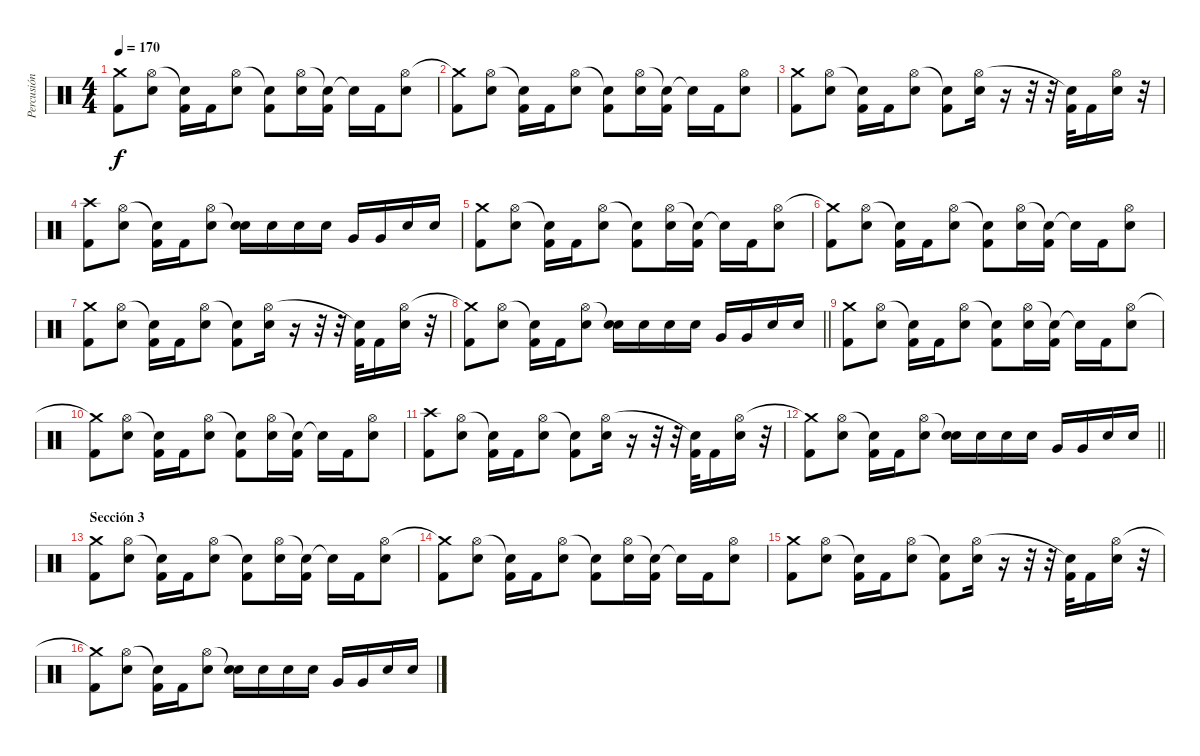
\track ("Percusión" "Percusión") {instrument percussion}
\staff {score}
\articulation defaults
\ts (4 4)
\tempo 170
\clef neutral
\ks c
("Crash medium (hit)" "Kick (hit) 2").8{dy f} ("Hi-Hat (open)" "Electric Snare (hit)").8 ("Snare (hit)"{t} "Kick (hit) 2").16 "Kick (hit) 2".16 ("Hi-Hat (open)" "Electric Snare (hit)").8 ("Snare (hit)"{t} "Kick (hit) 2").8 ("Hi-Hat (open)" "Electric Snare (hit)").16 ("Snare (hit)"{t} "Kick (hit) 2").16 "Snare (hit)"{t}.16 "Kick (hit) 2".16 ("Hi-Hat (open)" "Electric Snare (hit)").8 |
("Crash medium (hit)"{t} "Kick (hit) 2").8 ("Hi-Hat (open)" "Electric Snare (hit)").8 ("Snare (hit)"{t} "Kick (hit) 2").16 "Kick (hit) 2".16 ("Hi-Hat (open)" "Electric Snare (hit)").8 ("Snare (hit)"{t} "Kick (hit) 2").8 ("Hi-Hat (open)" "Electric Snare (hit)").16 ("Snare (hit)"{t} "Kick (hit) 2").16 "Snare (hit)"{t}.16 "Kick (hit) 2".16 ("Hi-Hat (open)" "Electric Snare (hit)").8 |
("Crash medium (hit)" "Kick (hit) 2").8 ("Hi-Hat (open)" "Electric Snare (hit)").8 ("Snare (hit)"{t} "Kick (hit) 2").16 "Kick (hit) 2".16 ("Hi-Hat (open)" "Electric Snare (hit)").8 ("Snare (hit)"{t} "Kick (hit) 2").8 ("Hi-Hat (open)" "Electric Snare (hit)").16 r.16 r.32 r.32 ("Snare (hit)"{t} "Kick (hit) 2").32 "Kick (hit) 2".16 ("Hi-Hat (open)" "Electric Snare (hit)").16 r.32 |
("Crash high (hit)" "Kick (hit) 2").8 ("Hi-Hat (open)" "Electric Snare (hit)").8 ("Snare (hit)"{t} "Kick (hit) 2").16 "Kick (hit) 2".16 ("Hi-Hat (open)" "Electric Snare (hit)").8 ("Snare (hit)"{t} "Electric Snare (hit)").16 "Electric Snare (hit)".16 "Electric Snare (hit)".16 "Electric Snare (hit)".16 "Very Low Tom (hit)".16 "Very Low Tom (hit)".16 "Electric Snare (hit)".16 "Electric Snare (hit)".16 |
("Crash medium (hit)" "Kick (hit) 2").8 ("Hi-Hat (open)" "Electric Snare (hit)").8 ("Snare (hit)"{t} "Kick (hit) 2").16 "Kick (hit) 2".16 ("Hi-Hat (open)" "Electric Snare (hit)").8 ("Snare (hit)"{t} "Kick (hit) 2").8 ("Hi-Hat (open)" "Electric Snare (hit)").16 ("Snare (hit)"{t} "Kick (hit) 2").16 "Snare (hit)"{t}.16 "Kick (hit) 2".16 ("Hi-Hat (open)" "Electric Snare (hit)").8 |
("Crash medium (hit)"{t} "Kick (hit) 2").8 ("Hi-Hat (open)" "Electric Snare (hit)").8 ("Snare (hit)"{t} "Kick (hit) 2").16 "Kick (hit) 2".16 ("Hi-Hat (open)" "Electric Snare (hit)").8 ("Snare (hit)"{t} "Kick (hit) 2").8 ("Hi-Hat (open)" "Electric Snare (hit)").16 ("Snare (hit)"{t} "Kick (hit) 2").16 "Snare (hit)"{t}.16 "Kick (hit) 2".16 ("Hi-Hat (open)" "Electric Snare (hit)").8 |
("Crash medium (hit)" "Kick (hit) 2").8 ("Hi-Hat (open)" "Electric Snare (hit)").8 ("Snare (hit)"{t} "Kick (hit) 2").16 "Kick (hit) 2".16 ("Hi-Hat (open)" "Electric Snare (hit)").8 ("Snare (hit)"{t} "Kick (hit) 2").8 ("Hi-Hat (open)" "Electric Snare (hit)").16 r.16 r.32 r.32 ("Snare (hit)"{t} "Kick (hit) 2").32 "Kick (hit) 2".16 ("Hi-Hat (open)" "Electric Snare (hit)").16 r.32 |
\barLineRight lightlight
("Crash medium (hit)"{t} "Kick (hit) 2").8 ("Hi-Hat (open)" "Electric Snare (hit)").8 ("Snare (hit)"{t} "Kick (hit) 2").16 "Kick (hit) 2".16 ("Hi-Hat (open)" "Electric Snare (hit)").8 ("Snare (hit)"{t} "Electric Snare (hit)").16 "Electric Snare (hit)".16 "Electric Snare (hit)".16 "Electric Snare (hit)".16 "Very Low Tom (hit)".16 "Very Low Tom (hit)".16 "Electric Snare (hit)".16 "Electric Snare (hit)".16 |
("Crash medium (hit)" "Kick (hit) 2").8 ("Hi-Hat (open)" "Electric Snare (hit)").8 ("Snare (hit)"{t} "Kick (hit) 2").16 "Kick (hit) 2".16 ("Hi-Hat (open)" "Electric Snare (hit)").8 ("Snare (hit)"{t} "Kick (hit) 2").8 ("Hi-Hat (open)" "Electric Snare (hit)").16 ("Snare (hit)"{t} "Kick (hit) 2").16 "Snare (hit)"{t}.16 "Kick (hit) 2".16 ("Hi-Hat (open)" "Electric Snare (hit)").8 |
("Crash medium (hit)"{t} "Kick (hit) 2").8 ("Hi-Hat (open)" "Electric Snare (hit)").8 ("Snare (hit)"{t} "Kick (hit) 2").16 "Kick (hit) 2".16 ("Hi-Hat (open)" "Electric Snare (hit)").8 ("Snare (hit)"{t} "Kick (hit) 2").8 ("Hi-Hat (open)" "Electric Snare (hit)").16 ("Snare (hit)"{t} "Kick (hit) 2").16 "Snare (hit)"{t}.16 "Kick (hit) 2".16 ("Hi-Hat (open)" "Electric Snare (hit)").8 |
("Crash high (hit)" "Kick (hit) 2").8 ("Hi-Hat (open)" "Electric Snare (hit)").8 ("Snare (hit)"{t} "Kick (hit) 2").16 "Kick (hit) 2".16 ("Hi-Hat (open)" "Electric Snare (hit)").8 ("Snare (hit)"{t} "Kick (hit) 2").8 ("Hi-Hat (open)" "Electric Snare (hit)").16 r.16 r.32 r.32 ("Snare (hit)"{t} "Kick (hit) 2").32 "Kick (hit) 2".16 ("Hi-Hat (open)" "Electric Snare (hit)").16 r.32 |
\barLineRight lightlight
("Crash medium (hit)"{t} "Kick (hit) 2").8 ("Hi-Hat (open)" "Electric Snare (hit)").8 ("Snare (hit)"{t} "Kick (hit) 2").16 "Kick (hit) 2".16 ("Hi-Hat (open)" "Electric Snare (hit)").8 ("Snare (hit)"{t} "Electric Snare (hit)").16 "Electric Snare (hit)".16 "Electric Snare (hit)".16 "Electric Snare (hit)".16 "Very Low Tom (hit)".16 "Very Low Tom (hit)".16 "Electric Snare (hit)".16 "Electric Snare (hit)".16 |
\section ("" "Sección 3")
("Crash medium (hit)" "Kick (hit) 2").8 ("Hi-Hat (open)" "Electric Snare (hit)").8 ("Snare (hit)"{t} "Kick (hit) 2").16 "Kick (hit) 2".16 ("Hi-Hat (open)" "Electric Snare (hit)").8 ("Snare (hit)"{t} "Kick (hit) 2").8 ("Hi-Hat (open)" "Electric Snare (hit)").16 ("Snare (hit)"{t} "Kick (hit) 2").16 "Snare (hit)"{t}.16 "Kick (hit) 2".16 ("Hi-Hat (open)" "Electric Snare (hit)").8 |
("Crash medium (hit)"{t} "Kick (hit) 2").8 ("Hi-Hat (open)" "Electric Snare (hit)").8 ("Snare (hit)"{t} "Kick (hit) 2").16 "Kick (hit) 2".16 ("Hi-Hat (open)" "Electric Snare (hit)").8 ("Snare (hit)"{t} "Kick (hit) 2").8 ("Hi-Hat (open)" "Electric Snare (hit)").16 ("Snare (hit)"{t} "Kick (hit) 2").16 "Snare (hit)"{t}.16 "Kick (hit) 2".16 ("Hi-Hat (open)" "Electric Snare (hit)").8 |
("Crash medium (hit)" "Kick (hit) 2").8 ("Hi-Hat (open)" "Electric Snare (hit)").8 ("Snare (hit)"{t} "Kick (hit) 2").16 "Kick (hit) 2".16 ("Hi-Hat (open)" "Electric Snare (hit)").8 ("Snare (hit)"{t} "Kick (hit) 2").8 ("Hi-Hat (open)" "Electric Snare (hit)").16 r.16 r.32 r.32 ("Snare (hit)"{t} "Kick (hit) 2").32 "Kick (hit) 2".16 ("Hi-Hat (open)" "Electric Snare (hit)").16 r.32 |
("Crash medium (hit)"{t} "Kick (hit) 2").8 ("Hi-Hat (open)" "Electric Snare (hit)").8 ("Snare (hit)"{t} "Kick (hit) 2").16 "Kick (hit) 2".16 ("Hi-Hat (open)" "Electric Snare (hit)").8 ("Snare (hit)"{t} "Electric Snare (hit)").16 "Electric Snare (hit)".16 "Electric Snare (hit)".16 "Electric Snare (hit)".16 "Very Low Tom (hit)".16 "Very Low Tom (hit)".16 "Electric Snare (hit)".16 "Electric Snare (hit)".16
